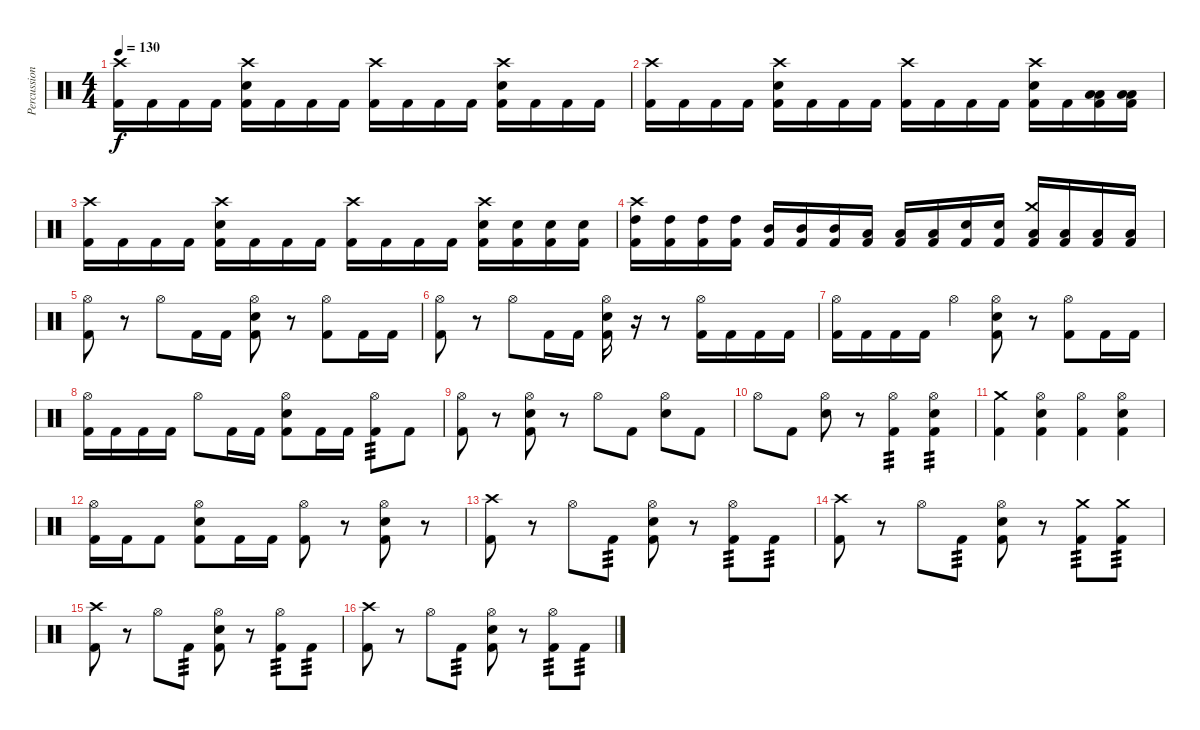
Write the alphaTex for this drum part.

\track ("Percussion" "Percussion") {instrument percussion}
\staff {score}
\articulation defaults
\ts (4 4)
\tempo 130
\clef neutral
\ks c
("Crash high (hit)" "Kick (hit) 2").16{dy f} "Kick (hit) 2".16 "Kick (hit) 2".16 "Kick (hit) 2".16 ("Crash high (hit)" "Electric Snare (hit)" "Kick (hit) 2").16 "Kick (hit) 2".16 "Kick (hit) 2".16 "Kick (hit) 2".16 ("Crash high (hit)" "Kick (hit) 2").16 "Kick (hit) 2".16 "Kick (hit) 2".16 "Kick (hit) 2".16 ("Crash high (hit)" "Electric Snare (hit)" "Kick (hit) 2").16 "Kick (hit) 2".16 "Kick (hit) 2".16 "Kick (hit) 2".16 |
("Crash high (hit)" "Kick (hit) 2").16 "Kick (hit) 2".16 "Kick (hit) 2".16 "Kick (hit) 2".16 ("Crash high (hit)" "Electric Snare (hit)" "Kick (hit) 2").16 "Kick (hit) 2".16 "Kick (hit) 2".16 "Kick (hit) 2".16 ("Crash high (hit)" "Kick (hit) 2").16 "Kick (hit) 2".16 "Kick (hit) 2".16 "Kick (hit) 2".16 ("Crash high (hit)" "Electric Snare (hit)" "Kick (hit) 2").16 "Kick (hit) 2".16 ("Low Tom (hit)" "Low Tom (hit)" "Kick (hit) 2").16 ("Low Tom (hit)" "Low Tom (hit)" "Kick (hit) 2").16 |
("Crash high (hit)" "Kick (hit) 2").16 "Kick (hit) 2".16 "Kick (hit) 2".16 "Kick (hit) 2".16 ("Crash high (hit)" "Electric Snare (hit)" "Kick (hit) 2").16 "Kick (hit) 2".16 "Kick (hit) 2".16 "Kick (hit) 2".16 ("Crash high (hit)" "Kick (hit) 2").16 "Kick (hit) 2".16 "Kick (hit) 2".16 "Kick (hit) 2".16 ("Crash high (hit)" "Electric Snare (hit)" "Kick (hit) 2").16 ("Electric Snare (hit)" "Kick (hit) 2").16 ("Electric Snare (hit)" "Kick (hit) 2").16 ("Electric Snare (hit)" "Kick (hit) 2").16 |
("Crash high (hit)" "High Tom (hit)" "Kick (hit) 2").16 ("High Tom (hit)" "Kick (hit) 2").16 ("High Tom (hit)" "Kick (hit) 2").16 ("High Tom (hit)" "Kick (hit) 2").16 ("Mid Tom (hit)" "Kick (hit) 2").16 ("Mid Tom (hit)" "Kick (hit) 2").16 ("Mid Tom (hit)" "Kick (hit) 2").16 ("Low Tom (hit)" "Kick (hit) 2").16 ("Low Tom (hit)" "Kick (hit) 2").16 ("Low Tom (hit)" "Kick (hit) 2").16 ("Electric Snare (hit)" "Kick (hit) 2").16 ("Electric Snare (hit)" "Kick (hit) 2").16 ("Crash medium (hit)" "Low Floor Tom (hit)" "Kick (hit) 2").16 ("Low Floor Tom (hit)" "Kick (hit) 2").16 ("Low Floor Tom (hit)" "Kick (hit) 2").16 ("Low Floor Tom (hit)" "Kick (hit) 2").16 |
("Hi-Hat (open)" "Kick (hit) 2").8 r.8 "Hi-Hat (open)".8 "Kick (hit) 2".16 "Kick (hit) 2".16 ("Hi-Hat (open)" "Electric Snare (hit)" "Kick (hit) 2").8 r.8 ("Hi-Hat (open)" "Kick (hit) 2").8 "Kick (hit) 2".16 "Kick (hit) 2".16 |
("Hi-Hat (open)" "Kick (hit) 2").8 r.8 "Hi-Hat (open)".8 "Kick (hit) 2".16 "Kick (hit) 2".16 ("Hi-Hat (open)" "Electric Snare (hit)" "Kick (hit) 2").16 r.16 r.8 ("Hi-Hat (open)" "Kick (hit) 2").16 "Kick (hit) 2".16 "Kick (hit) 2".16 "Kick (hit) 2".16 |
("Hi-Hat (open)" "Kick (hit) 2").16 "Kick (hit) 2".16 "Kick (hit) 2".16 "Kick (hit) 2".16 "Hi-Hat (open)".4 ("Hi-Hat (open)" "Electric Snare (hit)" "Kick (hit) 2").8 r.8 ("Hi-Hat (open)" "Kick (hit) 2").8 "Kick (hit) 2".16 "Kick (hit) 2".16 |
("Hi-Hat (open)" "Kick (hit) 2").16 "Kick (hit) 2".16 "Kick (hit) 2".16 "Kick (hit) 2".16 "Hi-Hat (open)".8 "Kick (hit) 2".16 "Kick (hit) 2".16 ("Hi-Hat (open)" "Electric Snare (hit)" "Kick (hit) 2").8 "Kick (hit) 2".16 "Kick (hit) 2".16 ("Hi-Hat (open)" "Kick (hit) 2").8{tp 3} "Kick (hit) 2".8 |
("Hi-Hat (open)" "Kick (hit) 2").8 r.8 ("Hi-Hat (open)" "Electric Snare (hit)" "Kick (hit) 2").8 r.8 "Hi-Hat (open)".8 "Kick (hit) 2".8 ("Hi-Hat (open)" "Electric Snare (hit)").8 "Kick (hit) 2".8 |
"Hi-Hat (open)".8 "Kick (hit) 2".8 ("Hi-Hat (open)" "Electric Snare (hit)").8 r.8 ("Hi-Hat (open)" "Kick (hit) 2").4{tp 3} ("Hi-Hat (open)" "Electric Snare (hit)" "Kick (hit) 2").4{tp 3} |
("Crash medium (hit)" "Kick (hit) 2").4 ("Hi-Hat (open)" "Electric Snare (hit)" "Kick (hit) 2").4 ("Hi-Hat (open)" "Kick (hit) 2").4 ("Hi-Hat (open)" "Electric Snare (hit)" "Kick (hit) 2").4 |
("Hi-Hat (open)" "Kick (hit) 2").16 "Kick (hit) 2".16 "Kick (hit) 2".8 ("Hi-Hat (open)" "Electric Snare (hit)" "Kick (hit) 2").8 "Kick (hit) 2".16 "Kick (hit) 2".16 ("Hi-Hat (open)" "Kick (hit) 2").8 r.8 ("Hi-Hat (open)" "Electric Snare (hit)" "Kick (hit) 2").8 r.8 |
("Crash high (hit)" "Kick (hit) 2").8 r.8 "Hi-Hat (open)".8 "Kick (hit) 2".8{tp 3} ("Hi-Hat (open)" "Electric Snare (hit)" "Kick (hit) 2").8 r.8 ("Hi-Hat (open)" "Kick (hit) 2").8{tp 3} "Kick (hit) 2".8{tp 3} |
("Crash high (hit)" "Kick (hit) 2").8 r.8 "Hi-Hat (open)".8 "Kick (hit) 2".8{tp 3} ("Hi-Hat (open)" "Electric Snare (hit)" "Kick (hit) 2").8 r.8 ("Crash medium (hit)" "Kick (hit) 2").8{tp 3} ("Crash medium (hit)" "Kick (hit) 2").8{tp 3} |
("Crash high (hit)" "Kick (hit) 2").8 r.8 "Hi-Hat (open)".8 "Kick (hit) 2".8{tp 3} ("Hi-Hat (open)" "Electric Snare (hit)" "Kick (hit) 2").8 r.8 ("Hi-Hat (open)" "Kick (hit) 2").8{tp 3} "Kick (hit) 2".8{tp 3} |
("Crash high (hit)" "Kick (hit) 2").8 r.8 "Hi-Hat (open)".8 "Kick (hit) 2".8{tp 3} ("Hi-Hat (open)" "Electric Snare (hit)" "Kick (hit) 2").8 r.8 ("Hi-Hat (open)" "Kick (hit) 2").8{tp 3} "Kick (hit) 2".8{tp 3}
